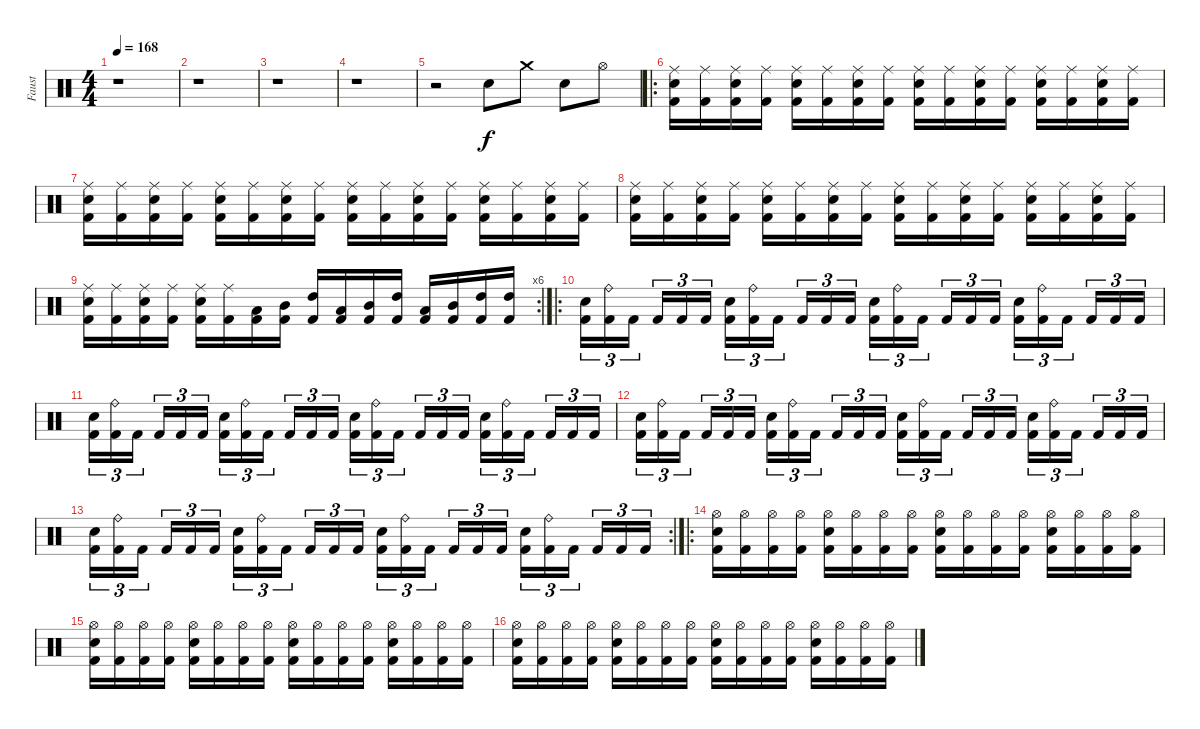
\track ("Faust" "Faust") {instrument percussion}
\staff {score}
\articulation defaults
\ts (4 4)
\tempo 168
\clef neutral
\ks c
r.1{dy f} |
r.1 |
r.1 |
r.1 |
r.2 "Electric Snare (hit)".8 "Crash medium (hit)".8 "Electric Snare (hit)".8 "Hi-Hat (open)".8 |
\ro
("Ride (middle)" "Electric Snare (hit)" "Kick (hit) 2").16 ("Ride (middle)" "Kick (hit) 2").16 ("Ride (middle)" "Electric Snare (hit)" "Kick (hit) 2").16 ("Ride (middle)" "Kick (hit) 2").16 ("Ride (middle)" "Electric Snare (hit)" "Kick (hit) 2").16 ("Ride (middle)" "Kick (hit) 2").16 ("Ride (middle)" "Electric Snare (hit)" "Kick (hit) 2").16 ("Ride (middle)" "Kick (hit) 2").16 ("Ride (middle)" "Electric Snare (hit)" "Kick (hit) 2").16 ("Ride (middle)" "Kick (hit) 2").16 ("Ride (middle)" "Electric Snare (hit)" "Kick (hit) 2").16 ("Ride (middle)" "Kick (hit) 2").16 ("Ride (middle)" "Electric Snare (hit)" "Kick (hit) 2").16 ("Ride (middle)" "Kick (hit) 2").16 ("Ride (middle)" "Electric Snare (hit)" "Kick (hit) 2").16 ("Ride (middle)" "Kick (hit) 2").16 |
("Ride (middle)" "Electric Snare (hit)" "Kick (hit) 2").16 ("Ride (middle)" "Kick (hit) 2").16 ("Ride (middle)" "Electric Snare (hit)" "Kick (hit) 2").16 ("Ride (middle)" "Kick (hit) 2").16 ("Ride (middle)" "Electric Snare (hit)" "Kick (hit) 2").16 ("Ride (middle)" "Kick (hit) 2").16 ("Ride (middle)" "Electric Snare (hit)" "Kick (hit) 2").16 ("Ride (middle)" "Kick (hit) 2").16 ("Ride (middle)" "Electric Snare (hit)" "Kick (hit) 2").16 ("Ride (middle)" "Kick (hit) 2").16 ("Ride (middle)" "Electric Snare (hit)" "Kick (hit) 2").16 ("Ride (middle)" "Kick (hit) 2").16 ("Ride (middle)" "Electric Snare (hit)" "Kick (hit) 2").16 ("Ride (middle)" "Kick (hit) 2").16 ("Ride (middle)" "Electric Snare (hit)" "Kick (hit) 2").16 ("Ride (middle)" "Kick (hit) 2").16 |
("Ride (middle)" "Electric Snare (hit)" "Kick (hit) 2").16 ("Ride (middle)" "Kick (hit) 2").16 ("Ride (middle)" "Electric Snare (hit)" "Kick (hit) 2").16 ("Ride (middle)" "Kick (hit) 2").16 ("Ride (middle)" "Electric Snare (hit)" "Kick (hit) 2").16 ("Ride (middle)" "Kick (hit) 2").16 ("Ride (middle)" "Electric Snare (hit)" "Kick (hit) 2").16 ("Ride (middle)" "Kick (hit) 2").16 ("Ride (middle)" "Electric Snare (hit)" "Kick (hit) 2").16 ("Ride (middle)" "Kick (hit) 2").16 ("Ride (middle)" "Electric Snare (hit)" "Kick (hit) 2").16 ("Ride (middle)" "Kick (hit) 2").16 ("Ride (middle)" "Electric Snare (hit)" "Kick (hit) 2").16 ("Ride (middle)" "Kick (hit) 2").16 ("Ride (middle)" "Electric Snare (hit)" "Kick (hit) 2").16 ("Ride (middle)" "Kick (hit) 2").16 |
\rc 6
("Ride (middle)" "Electric Snare (hit)" "Kick (hit) 2").16 ("Ride (middle)" "Kick (hit) 2").16 ("Ride (middle)" "Electric Snare (hit)" "Kick (hit) 2").16 ("Ride (middle)" "Kick (hit) 2").16 ("Ride (middle)" "Electric Snare (hit)" "Kick (hit) 2").16 ("Ride (middle)" "Kick (hit) 2").16 ("Low Tom (hit)" "Kick (hit) 2").16 ("Mid Tom (hit)" "Kick (hit) 2").16 ("High Tom (hit)" "Kick (hit) 2").16 ("Low Tom (hit)" "Kick (hit) 2").16 ("Mid Tom (hit)" "Kick (hit) 2").16 ("High Tom (hit)" "Kick (hit) 2").16 ("Low Tom (hit)" "Kick (hit) 2").16 ("Mid Tom (hit)" "Kick (hit) 2").16 ("High Tom (hit)" "Kick (hit) 2").16 ("High Tom (hit)" "Kick (hit) 2").16 |
\ro
("Electric Snare (hit)" "Kick (hit) 2").16{tu (3 2)} ("Ride (bell)" "Kick (hit) 2").16{tu (3 2)} "Kick (hit) 2".16{tu (3 2)} "Kick (hit) 2".16{tu (3 2)} "Kick (hit) 2".16{tu (3 2)} "Kick (hit) 2".16{tu (3 2)} ("Electric Snare (hit)" "Kick (hit) 2").16{tu (3 2)} ("Ride (bell)" "Kick (hit) 2").16{tu (3 2)} "Kick (hit) 2".16{tu (3 2)} "Kick (hit) 2".16{tu (3 2)} "Kick (hit) 2".16{tu (3 2)} "Kick (hit) 2".16{tu (3 2)} ("Electric Snare (hit)" "Kick (hit) 2").16{tu (3 2)} ("Ride (bell)" "Kick (hit) 2").16{tu (3 2)} "Kick (hit) 2".16{tu (3 2)} "Kick (hit) 2".16{tu (3 2)} "Kick (hit) 2".16{tu (3 2)} "Kick (hit) 2".16{tu (3 2)} ("Electric Snare (hit)" "Kick (hit) 2").16{tu (3 2)} ("Ride (bell)" "Kick (hit) 2").16{tu (3 2)} "Kick (hit) 2".16{tu (3 2)} "Kick (hit) 2".16{tu (3 2)} "Kick (hit) 2".16{tu (3 2)} "Kick (hit) 2".16{tu (3 2)} |
("Electric Snare (hit)" "Kick (hit) 2").16{tu (3 2)} ("Ride (bell)" "Kick (hit) 2").16{tu (3 2)} "Kick (hit) 2".16{tu (3 2)} "Kick (hit) 2".16{tu (3 2)} "Kick (hit) 2".16{tu (3 2)} "Kick (hit) 2".16{tu (3 2)} ("Electric Snare (hit)" "Kick (hit) 2").16{tu (3 2)} ("Ride (bell)" "Kick (hit) 2").16{tu (3 2)} "Kick (hit) 2".16{tu (3 2)} "Kick (hit) 2".16{tu (3 2)} "Kick (hit) 2".16{tu (3 2)} "Kick (hit) 2".16{tu (3 2)} ("Electric Snare (hit)" "Kick (hit) 2").16{tu (3 2)} ("Ride (bell)" "Kick (hit) 2").16{tu (3 2)} "Kick (hit) 2".16{tu (3 2)} "Kick (hit) 2".16{tu (3 2)} "Kick (hit) 2".16{tu (3 2)} "Kick (hit) 2".16{tu (3 2)} ("Electric Snare (hit)" "Kick (hit) 2").16{tu (3 2)} ("Ride (bell)" "Kick (hit) 2").16{tu (3 2)} "Kick (hit) 2".16{tu (3 2)} "Kick (hit) 2".16{tu (3 2)} "Kick (hit) 2".16{tu (3 2)} "Kick (hit) 2".16{tu (3 2)} |
("Electric Snare (hit)" "Kick (hit) 2").16{tu (3 2)} ("Ride (bell)" "Kick (hit) 2").16{tu (3 2)} "Kick (hit) 2".16{tu (3 2)} "Kick (hit) 2".16{tu (3 2)} "Kick (hit) 2".16{tu (3 2)} "Kick (hit) 2".16{tu (3 2)} ("Electric Snare (hit)" "Kick (hit) 2").16{tu (3 2)} ("Ride (bell)" "Kick (hit) 2").16{tu (3 2)} "Kick (hit) 2".16{tu (3 2)} "Kick (hit) 2".16{tu (3 2)} "Kick (hit) 2".16{tu (3 2)} "Kick (hit) 2".16{tu (3 2)} ("Electric Snare (hit)" "Kick (hit) 2").16{tu (3 2)} ("Ride (bell)" "Kick (hit) 2").16{tu (3 2)} "Kick (hit) 2".16{tu (3 2)} "Kick (hit) 2".16{tu (3 2)} "Kick (hit) 2".16{tu (3 2)} "Kick (hit) 2".16{tu (3 2)} ("Electric Snare (hit)" "Kick (hit) 2").16{tu (3 2)} ("Ride (bell)" "Kick (hit) 2").16{tu (3 2)} "Kick (hit) 2".16{tu (3 2)} "Kick (hit) 2".16{tu (3 2)} "Kick (hit) 2".16{tu (3 2)} "Kick (hit) 2".16{tu (3 2)} |
\rc 2
("Electric Snare (hit)" "Kick (hit) 2").16{tu (3 2)} ("Ride (bell)" "Kick (hit) 2").16{tu (3 2)} "Kick (hit) 2".16{tu (3 2)} "Kick (hit) 2".16{tu (3 2)} "Kick (hit) 2".16{tu (3 2)} "Kick (hit) 2".16{tu (3 2)} ("Electric Snare (hit)" "Kick (hit) 2").16{tu (3 2)} ("Ride (bell)" "Kick (hit) 2").16{tu (3 2)} "Kick (hit) 2".16{tu (3 2)} "Kick (hit) 2".16{tu (3 2)} "Kick (hit) 2".16{tu (3 2)} "Kick (hit) 2".16{tu (3 2)} ("Electric Snare (hit)" "Kick (hit) 2").16{tu (3 2)} ("Ride (bell)" "Kick (hit) 2").16{tu (3 2)} "Kick (hit) 2".16{tu (3 2)} "Kick (hit) 2".16{tu (3 2)} "Kick (hit) 2".16{tu (3 2)} "Kick (hit) 2".16{tu (3 2)} ("Electric Snare (hit)" "Kick (hit) 2").16{tu (3 2)} ("Ride (bell)" "Kick (hit) 2").16{tu (3 2)} "Kick (hit) 2".16{tu (3 2)} "Kick (hit) 2".16{tu (3 2)} "Kick (hit) 2".16{tu (3 2)} "Kick (hit) 2".16{tu (3 2)} |
\ro
("Hi-Hat (open)" "Electric Snare (hit)" "Kick (hit) 2").16 ("Hi-Hat (open)" "Kick (hit) 2").16 ("Hi-Hat (open)" "Kick (hit) 2").16 ("Hi-Hat (open)" "Kick (hit) 2").16 ("Hi-Hat (open)" "Electric Snare (hit)" "Kick (hit) 2").16 ("Hi-Hat (open)" "Kick (hit) 2").16 ("Hi-Hat (open)" "Kick (hit) 2").16 ("Hi-Hat (open)" "Kick (hit) 2").16 ("Hi-Hat (open)" "Electric Snare (hit)" "Kick (hit) 2").16 ("Hi-Hat (open)" "Kick (hit) 2").16 ("Hi-Hat (open)" "Kick (hit) 2").16 ("Hi-Hat (open)" "Kick (hit) 2").16 ("Hi-Hat (open)" "Electric Snare (hit)" "Kick (hit) 2").16 ("Hi-Hat (open)" "Kick (hit) 2").16 ("Hi-Hat (open)" "Kick (hit) 2").16 ("Hi-Hat (open)" "Kick (hit) 2").16 |
("Hi-Hat (open)" "Electric Snare (hit)" "Kick (hit) 2").16 ("Hi-Hat (open)" "Kick (hit) 2").16 ("Hi-Hat (open)" "Kick (hit) 2").16 ("Hi-Hat (open)" "Kick (hit) 2").16 ("Hi-Hat (open)" "Electric Snare (hit)" "Kick (hit) 2").16 ("Hi-Hat (open)" "Kick (hit) 2").16 ("Hi-Hat (open)" "Kick (hit) 2").16 ("Hi-Hat (open)" "Kick (hit) 2").16 ("Hi-Hat (open)" "Electric Snare (hit)" "Kick (hit) 2").16 ("Hi-Hat (open)" "Kick (hit) 2").16 ("Hi-Hat (open)" "Kick (hit) 2").16 ("Hi-Hat (open)" "Kick (hit) 2").16 ("Hi-Hat (open)" "Electric Snare (hit)" "Kick (hit) 2").16 ("Hi-Hat (open)" "Kick (hit) 2").16 ("Hi-Hat (open)" "Kick (hit) 2").16 ("Hi-Hat (open)" "Kick (hit) 2").16 |
("Hi-Hat (open)" "Electric Snare (hit)" "Kick (hit) 2").16 ("Hi-Hat (open)" "Kick (hit) 2").16 ("Hi-Hat (open)" "Kick (hit) 2").16 ("Hi-Hat (open)" "Kick (hit) 2").16 ("Hi-Hat (open)" "Electric Snare (hit)" "Kick (hit) 2").16 ("Hi-Hat (open)" "Kick (hit) 2").16 ("Hi-Hat (open)" "Kick (hit) 2").16 ("Hi-Hat (open)" "Kick (hit) 2").16 ("Hi-Hat (open)" "Electric Snare (hit)" "Kick (hit) 2").16 ("Hi-Hat (open)" "Kick (hit) 2").16 ("Hi-Hat (open)" "Kick (hit) 2").16 ("Hi-Hat (open)" "Kick (hit) 2").16 ("Hi-Hat (open)" "Electric Snare (hit)" "Kick (hit) 2").16 ("Hi-Hat (open)" "Kick (hit) 2").16 ("Hi-Hat (open)" "Kick (hit) 2").16 ("Hi-Hat (open)" "Kick (hit) 2").16
